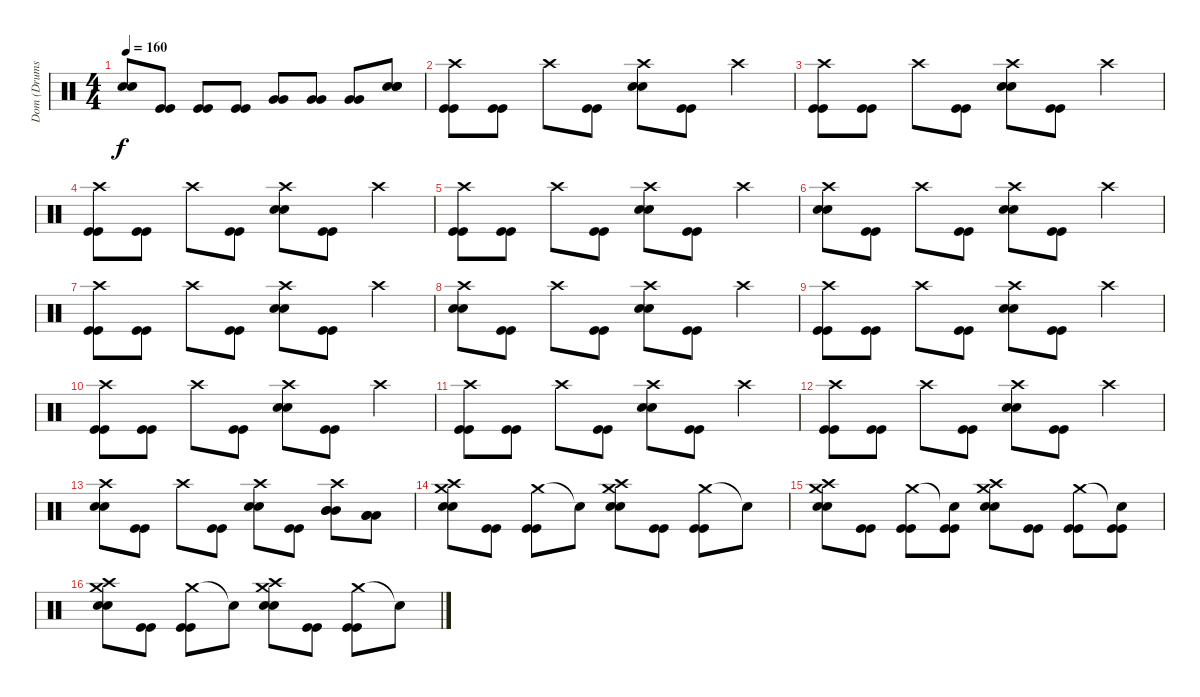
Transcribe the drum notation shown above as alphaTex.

\track ("Dom (Drums)" "Dom (Drums") {instrument percussion}
\staff {score}
\articulation defaults
\ts (4 4)
\tempo 160
\clef neutral
\ks c
("Snare (hit) 2" "Snare (hit) 2").8{dy f} ("Kick (hit)" "Kick (hit)").8 ("Kick (hit)" "Kick (hit)").8 ("Kick (hit)" "Kick (hit)").8 ("Very Low Tom (hit)" "Very Low Tom (hit)").8 ("Very Low Tom (hit)" "Very Low Tom (hit)").8 ("Very Low Tom (hit)" "Very Low Tom (hit)").8 ("Snare (hit) 2" "Snare (hit) 2" "Snare (hit) 2").8 |
("Crash high (hit)" "Kick (hit)" "Kick (hit)").8 ("Kick (hit)" "Kick (hit)").8 "Crash high (hit)".8 ("Kick (hit)" "Kick (hit)").8 ("Crash high (hit)" "Snare (hit) 2" "Snare (hit) 2").8 ("Kick (hit)" "Kick (hit)").8 "Crash high (hit)".4 |
("Crash high (hit)" "Kick (hit)" "Kick (hit)").8 ("Kick (hit)" "Kick (hit)").8 "Crash high (hit)".8 ("Kick (hit)" "Kick (hit)").8 ("Crash high (hit)" "Snare (hit) 2" "Snare (hit) 2").8 ("Kick (hit)" "Kick (hit)").8 "Crash high (hit)".4 |
("Crash high (hit)" "Kick (hit)" "Kick (hit)").8 ("Kick (hit)" "Kick (hit)").8 "Crash high (hit)".8 ("Kick (hit)" "Kick (hit)").8 ("Crash high (hit)" "Snare (hit) 2" "Snare (hit) 2").8 ("Kick (hit)" "Kick (hit)").8 "Crash high (hit)".4 |
("Crash high (hit)" "Kick (hit)" "Kick (hit)").8 ("Kick (hit)" "Kick (hit)").8 "Crash high (hit)".8 ("Kick (hit)" "Kick (hit)").8 ("Crash high (hit)" "Snare (hit) 2" "Snare (hit) 2").8 ("Kick (hit)" "Kick (hit)").8 "Crash high (hit)".4 |
("Crash high (hit)" "Snare (hit) 2" "Snare (hit) 2").8 ("Kick (hit)" "Kick (hit)").8 "Crash high (hit)".8 ("Kick (hit)" "Kick (hit)").8 ("Crash high (hit)" "Snare (hit) 2" "Snare (hit) 2").8 ("Kick (hit)" "Kick (hit)").8 "Crash high (hit)".4 |
("Crash high (hit)" "Kick (hit)" "Kick (hit)").8 ("Kick (hit)" "Kick (hit)").8 "Crash high (hit)".8 ("Kick (hit)" "Kick (hit)").8 ("Crash high (hit)" "Snare (hit) 2" "Snare (hit) 2").8 ("Kick (hit)" "Kick (hit)").8 "Crash high (hit)".4 |
("Crash high (hit)" "Snare (hit) 2" "Snare (hit) 2").8 ("Kick (hit)" "Kick (hit)").8 "Crash high (hit)".8 ("Kick (hit)" "Kick (hit)").8 ("Crash high (hit)" "Snare (hit) 2" "Snare (hit) 2").8 ("Kick (hit)" "Kick (hit)").8 "Crash high (hit)".4 |
("Crash high (hit)" "Kick (hit)" "Kick (hit)").8 ("Kick (hit)" "Kick (hit)").8 "Crash high (hit)".8 ("Kick (hit)" "Kick (hit)").8 ("Crash high (hit)" "Snare (hit) 2" "Snare (hit) 2").8 ("Kick (hit)" "Kick (hit)").8 "Crash high (hit)".4 |
("Crash high (hit)" "Kick (hit)" "Kick (hit)").8 ("Kick (hit)" "Kick (hit)").8 "Crash high (hit)".8 ("Kick (hit)" "Kick (hit)").8 ("Crash high (hit)" "Snare (hit) 2" "Snare (hit) 2").8 ("Kick (hit)" "Kick (hit)").8 "Crash high (hit)".4 |
("Crash high (hit)" "Kick (hit)" "Kick (hit)").8 ("Kick (hit)" "Kick (hit)").8 "Crash high (hit)".8 ("Kick (hit)" "Kick (hit)").8 ("Crash high (hit)" "Snare (hit) 2" "Snare (hit) 2").8 ("Kick (hit)" "Kick (hit)").8 "Crash high (hit)".4 |
("Crash high (hit)" "Kick (hit)" "Kick (hit)").8 ("Kick (hit)" "Kick (hit)").8 "Crash high (hit)".8 ("Kick (hit)" "Kick (hit)").8 ("Crash high (hit)" "Snare (hit) 2" "Snare (hit) 2").8 ("Kick (hit)" "Kick (hit)").8 "Crash high (hit)".4 |
("Crash high (hit)" "Snare (hit) 2" "Snare (hit) 2").8 ("Kick (hit)" "Kick (hit)").8 "Crash high (hit)".8 ("Kick (hit)" "Kick (hit)").8 ("Crash high (hit)" "Snare (hit) 2" "Snare (hit) 2").8 ("Kick (hit)" "Kick (hit)").8 ("Crash high (hit)" "Mid Tom (hit)" "Mid Tom (hit)" "Mid Tom (hit)").8 ("Low Tom (hit)" "Low Tom (hit)" "Low Tom (hit)").8 |
("Crash medium (hit)" "Crash high (hit)" "Snare (hit) 2" "Snare (hit) 2").8 ("Kick (hit)" "Kick (hit)").8 ("Crash medium (hit)" "Kick (hit)" "Kick (hit)").8 "Snare (hit)"{t}.8 ("Crash medium (hit)" "Crash high (hit)" "Snare (hit) 2" "Snare (hit) 2").8 ("Kick (hit)" "Kick (hit)").8 ("Crash medium (hit)" "Kick (hit)" "Kick (hit)").8 "Snare (hit)"{t}.8 |
("Crash medium (hit)" "Crash high (hit)" "Snare (hit) 2" "Snare (hit) 2").8 ("Kick (hit)" "Kick (hit)").8 ("Crash medium (hit)" "Kick (hit)" "Kick (hit)").8 ("Snare (hit)"{t} "Kick (hit)" "Kick (hit)").8 ("Crash medium (hit)" "Crash high (hit)" "Snare (hit) 2" "Snare (hit) 2").8 ("Kick (hit)" "Kick (hit)").8 ("Crash medium (hit)" "Kick (hit)" "Kick (hit)").8 ("Snare (hit)"{t} "Kick (hit)" "Kick (hit)").8 |
("Crash medium (hit)" "Crash high (hit)" "Snare (hit) 2" "Snare (hit) 2").8 ("Kick (hit)" "Kick (hit)").8 ("Crash medium (hit)" "Kick (hit)" "Kick (hit)").8 "Snare (hit)"{t}.8 ("Crash medium (hit)" "Crash high (hit)" "Snare (hit) 2" "Snare (hit) 2").8 ("Kick (hit)" "Kick (hit)").8 ("Crash medium (hit)" "Kick (hit)" "Kick (hit)").8 "Snare (hit)"{t}.8
